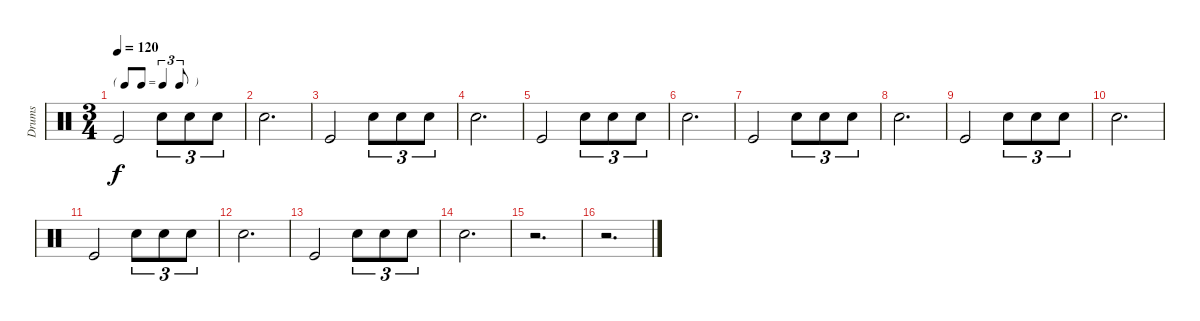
\track ("Drums" "Drums") {instrument percussion}
\staff {score}
\articulation defaults
\ts (3 4)
\tf triplet8th
\tempo 120
\clef neutral
\ks c "Kick (hit)".2{dy f} "Snare (hit) 2".8{tu (3 2)} "Snare (hit) 2".8{tu (3 2)} "Snare (hit) 2".8{tu (3 2)}
|
"Snare (hit) 2".2{d} |
"Kick (hit)".2 "Snare (hit) 2".8{tu (3 2)} "Snare (hit) 2".8{tu (3 2)} "Snare (hit) 2".8{tu (3 2)} |
"Snare (hit) 2".2{d} |
"Kick (hit)".2 "Snare (hit) 2".8{tu (3 2)} "Snare (hit) 2".8{tu (3 2)} "Snare (hit) 2".8{tu (3 2)} |
"Snare (hit) 2".2{d} |
"Kick (hit)".2 "Snare (hit) 2".8{tu (3 2)} "Snare (hit) 2".8{tu (3 2)} "Snare (hit) 2".8{tu (3 2)} |
"Snare (hit) 2".2{d} |
"Kick (hit)".2 "Snare (hit) 2".8{tu (3 2)} "Snare (hit) 2".8{tu (3 2)} "Snare (hit) 2".8{tu (3 2)} |
"Snare (hit) 2".2{d} |
"Kick (hit)".2 "Snare (hit) 2".8{tu (3 2)} "Snare (hit) 2".8{tu (3 2)} "Snare (hit) 2".8{tu (3 2)} |
"Snare (hit) 2".2{d} |
"Kick (hit)".2 "Snare (hit) 2".8{tu (3 2)} "Snare (hit) 2".8{tu (3 2)} "Snare (hit) 2".8{tu (3 2)} |
"Snare (hit) 2".2{d} |
r.2{d} |
r.2{d}
